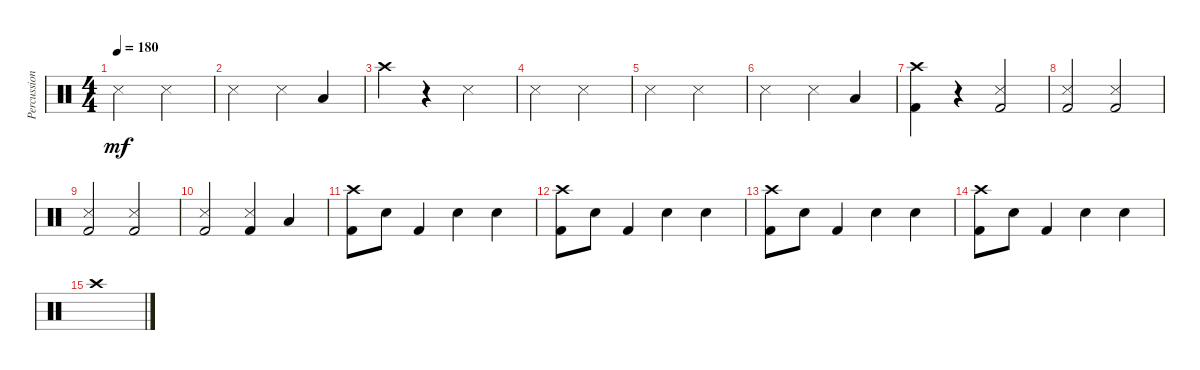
\track ("Percussion" "Percussion") {instrument percussion}
\staff {score}
\articulation defaults
\ts (4 4)
\tempo 180
\clef neutral
\ks c "Metronome (hit)".2{dy mf} "Metronome (hit)".2
|
"Metronome (hit)".2 "Metronome (hit)".4 "Low Tom (hit)".4 |
"Crash high (hit)".4 r.4 "Metronome (hit)".2 |
"Metronome (hit)".2 "Metronome (hit)".2 |
"Metronome (hit)".2 "Metronome (hit)".2 |
"Metronome (hit)".2 "Metronome (hit)".4 "Low Tom (hit)".4 |
("Crash high (hit)" "Kick (hit) 2").4 r.4 ("Kick (hit) 2" "Metronome (hit)").2 |
("Kick (hit) 2" "Metronome (hit)").2 ("Kick (hit) 2" "Metronome (hit)").2 |
("Kick (hit) 2" "Metronome (hit)").2 ("Kick (hit) 2" "Metronome (hit)").2 |
("Kick (hit) 2" "Metronome (hit)").2 ("Kick (hit) 2" "Metronome (hit)").4 "Low Tom (hit)".4 |
("Crash high (hit)" "Kick (hit) 2").8 "Electric Snare (hit)".8 "Kick (hit) 2".4 "Electric Snare (hit)".4 "Electric Snare (hit)".4 |
("Crash high (hit)" "Kick (hit) 2").8 "Electric Snare (hit)".8 "Kick (hit) 2".4 "Electric Snare (hit)".4 "Electric Snare (hit)".4 |
("Crash high (hit)" "Kick (hit) 2").8 "Electric Snare (hit)".8 "Kick (hit) 2".4 "Electric Snare (hit)".4 "Electric Snare (hit)".4 |
("Crash high (hit)" "Kick (hit) 2").8 "Electric Snare (hit)".8 "Kick (hit) 2".4 "Electric Snare (hit)".4 "Electric Snare (hit)".4 |
"Crash high (hit)".1
